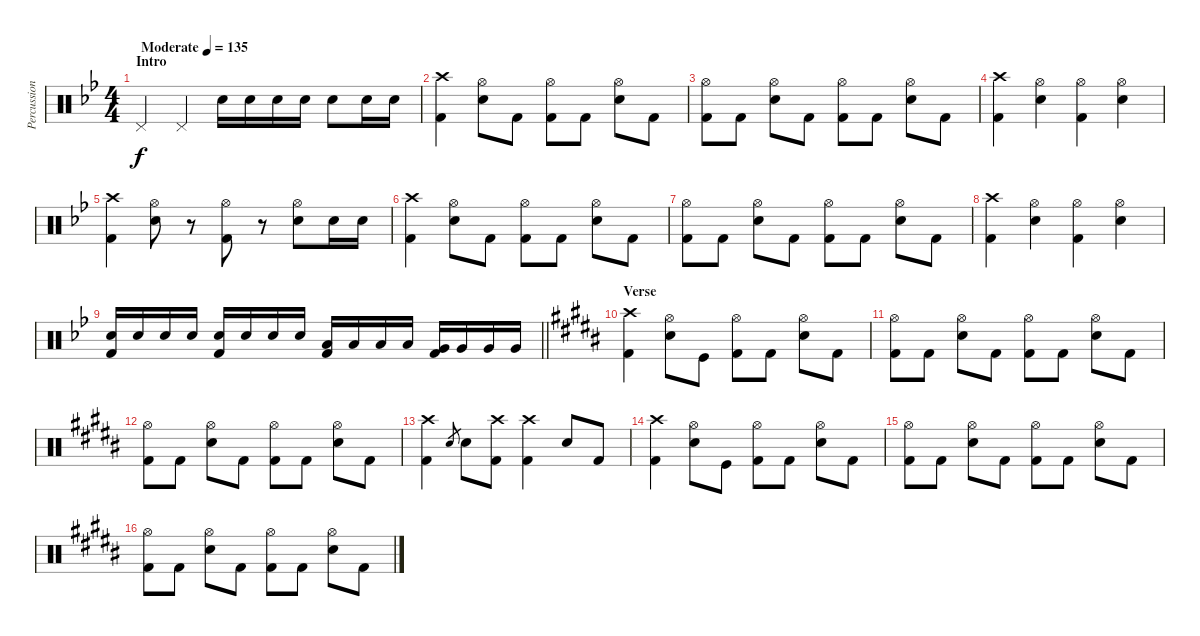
\track ("Percussion" "Percussion") {instrument percussion}
\staff {score}
\articulation defaults
\ts (4 4)
\section ("" "Intro")
\tempo (135 "Moderate")
\clef neutral
\ks bb "Pedal Hi-Hat (hit)".4{dy f} "Pedal Hi-Hat (hit)".4 "Electric Snare (hit)".16 "Electric Snare (hit)".16 "Electric Snare (hit)".16 "Electric Snare (hit)".16 "Electric Snare (hit)".8 "Electric Snare (hit)".16 "Electric Snare (hit)".16
|
("Crash high (hit)" "Kick (hit) 2").4 ("Electric Snare (hit)" "Hi-Hat (open)").8 "Kick (hit) 2".8 ("Hi-Hat (open)" "Kick (hit) 2").8 "Kick (hit) 2".8 ("Hi-Hat (open)" "Electric Snare (hit)").8 "Kick (hit) 2".8 |
("Hi-Hat (open)" "Kick (hit) 2").8 "Kick (hit) 2".8 ("Electric Snare (hit)" "Hi-Hat (open)").8 "Kick (hit) 2".8 ("Hi-Hat (open)" "Kick (hit) 2").8 "Kick (hit) 2".8 ("Hi-Hat (open)" "Electric Snare (hit)").8 "Kick (hit) 2".8 |
("Crash high (hit)" "Kick (hit) 2").4 ("Hi-Hat (open)" "Electric Snare (hit)").4 ("Hi-Hat (open)" "Kick (hit) 2").4 ("Hi-Hat (open)" "Electric Snare (hit)").4 |
("Crash high (hit)" "Kick (hit) 2").4 ("Electric Snare (hit)" "Hi-Hat (open)").8 r.8 ("Hi-Hat (open)" "Kick (hit) 2").8 r.8 ("Hi-Hat (open)" "Electric Snare (hit)").8 "Electric Snare (hit)".16 "Electric Snare (hit)".16 |
("Crash high (hit)" "Kick (hit) 2").4 ("Electric Snare (hit)" "Hi-Hat (open)").8 "Kick (hit) 2".8 ("Hi-Hat (open)" "Kick (hit) 2").8 "Kick (hit) 2".8 ("Hi-Hat (open)" "Electric Snare (hit)").8 "Kick (hit) 2".8 |
("Hi-Hat (open)" "Kick (hit) 2").8 "Kick (hit) 2".8 ("Electric Snare (hit)" "Hi-Hat (open)").8 "Kick (hit) 2".8 ("Hi-Hat (open)" "Kick (hit) 2").8 "Kick (hit) 2".8 ("Hi-Hat (open)" "Electric Snare (hit)").8 "Kick (hit) 2".8 |
("Crash high (hit)" "Kick (hit) 2").4 ("Hi-Hat (open)" "Electric Snare (hit)").4 ("Hi-Hat (open)" "Kick (hit) 2").4 ("Hi-Hat (open)" "Electric Snare (hit)").4 |
\barLineRight lightlight
("Electric Snare (hit)" "Kick (hit) 2").16 "Electric Snare (hit)".16 "Electric Snare (hit)".16 "Electric Snare (hit)".16 ("Electric Snare (hit)" "Kick (hit) 2").16 "Electric Snare (hit)".16 "Electric Snare (hit)".16 "Electric Snare (hit)".16 ("Low Tom (hit)" "Kick (hit) 2").16 "Low Tom (hit)".16 "Low Tom (hit)".16 "Low Tom (hit)".16 ("Very Low Tom (hit)" "Kick (hit) 2").16 "Very Low Tom (hit)".16 "Very Low Tom (hit)".16 "Very Low Tom (hit)".16 |
\section ("" "Verse")
\ks b
("Crash high (hit)" "Kick (hit) 2").4 ("Electric Snare (hit)" "Hi-Hat (open)").8 "Kick (hit)".8 ("Hi-Hat (open)" "Kick (hit) 2").8 "Kick (hit) 2".8 ("Electric Snare (hit)" "Hi-Hat (open)").8 "Kick (hit) 2".8 |
("Hi-Hat (open)" "Kick (hit) 2").8 "Kick (hit) 2".8 ("Electric Snare (hit)" "Hi-Hat (open)").8 "Kick (hit) 2".8 ("Hi-Hat (open)" "Kick (hit) 2").8 "Kick (hit) 2".8 ("Electric Snare (hit)" "Hi-Hat (open)").8 "Kick (hit) 2".8 |
("Hi-Hat (open)" "Kick (hit) 2").8 "Kick (hit) 2".8 ("Electric Snare (hit)" "Hi-Hat (open)").8 "Kick (hit) 2".8 ("Hi-Hat (open)" "Kick (hit) 2").8 "Kick (hit) 2".8 ("Electric Snare (hit)" "Hi-Hat (open)").8 "Kick (hit) 2".8 |
("Crash high (hit)" "Kick (hit) 2").4 "Electric Snare (hit)".8{gr} "Electric Snare (hit)".8 ("Crash high (hit)" "Kick (hit) 2").8 ("Crash high (hit)" "Kick (hit) 2").4 "Electric Snare (hit)".8 "Kick (hit) 2".8 |
("Crash high (hit)" "Kick (hit) 2").4 ("Electric Snare (hit)" "Hi-Hat (open)").8 "Kick (hit)".8 ("Hi-Hat (open)" "Kick (hit) 2").8 "Kick (hit) 2".8 ("Electric Snare (hit)" "Hi-Hat (open)").8 "Kick (hit) 2".8 |
("Hi-Hat (open)" "Kick (hit) 2").8 "Kick (hit) 2".8 ("Electric Snare (hit)" "Hi-Hat (open)").8 "Kick (hit) 2".8 ("Hi-Hat (open)" "Kick (hit) 2").8 "Kick (hit) 2".8 ("Electric Snare (hit)" "Hi-Hat (open)").8 "Kick (hit) 2".8 |
("Hi-Hat (open)" "Kick (hit) 2").8 "Kick (hit) 2".8 ("Electric Snare (hit)" "Hi-Hat (open)").8 "Kick (hit) 2".8 ("Hi-Hat (open)" "Kick (hit) 2").8 "Kick (hit) 2".8 ("Electric Snare (hit)" "Hi-Hat (open)").8 "Kick (hit) 2".8
